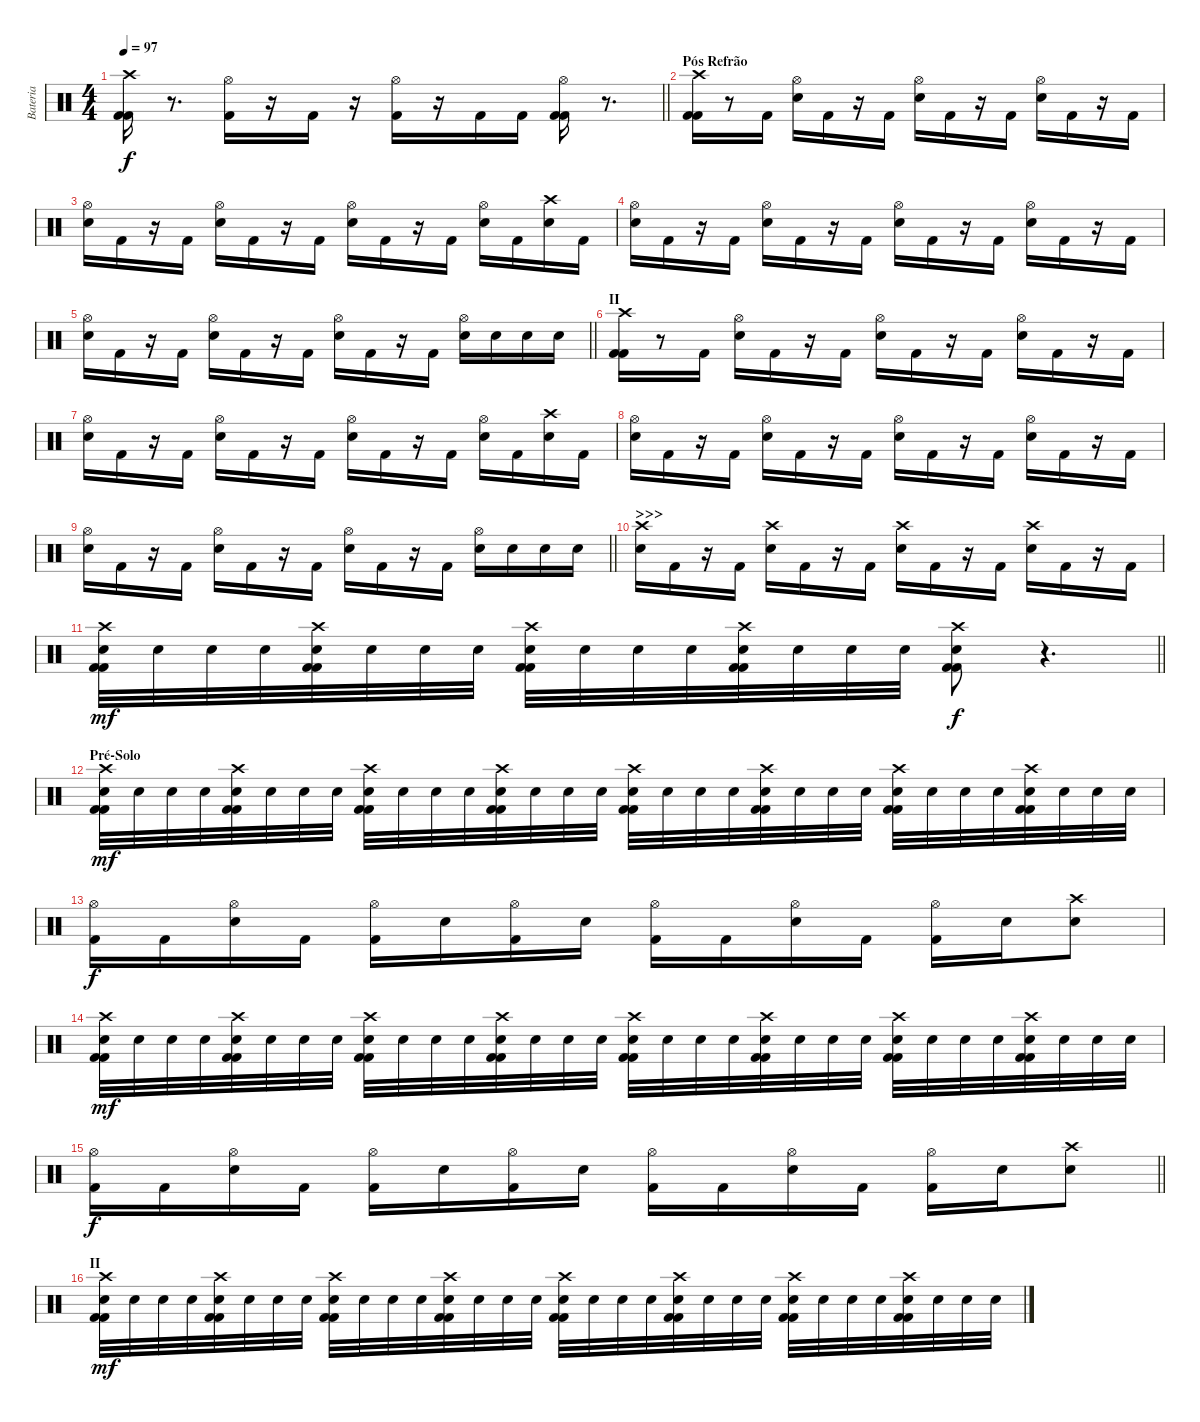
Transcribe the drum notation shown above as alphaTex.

\track ("Bateria" "Bateria") {instrument percussion}
\staff {score}
\articulation defaults
\ts (4 4)
\tempo 97
\clef neutral
\barLineRight lightlight
\ks c
("Crash high (hit)" "Kick (hit) 2" "Kick (hit) 2").16{dy f} r.8{d} ("Hi-Hat (open)" "Kick (hit) 2").16 r.16 "Kick (hit) 2".16 r.16 ("Hi-Hat (open)" "Kick (hit) 2").16 r.16 "Kick (hit) 2".16 "Kick (hit) 2".16 ("Hi-Hat (open)" "Kick (hit) 2" "Kick (hit) 2").16 r.8{d} |
\section ("" "Pós Refrão")
("Crash high (hit)" "Kick (hit) 2" "Kick (hit) 2").16 r.8 "Kick (hit) 2".16 ("Hi-Hat (open)" "Electric Snare (hit)").16 "Kick (hit) 2".16 r.16 "Kick (hit) 2".16 ("Hi-Hat (open)" "Electric Snare (hit)").16 "Kick (hit) 2".16 r.16 "Kick (hit) 2".16 ("Hi-Hat (open)" "Electric Snare (hit)").16 "Kick (hit) 2".16 r.16 "Kick (hit) 2".16 |
("Hi-Hat (open)" "Electric Snare (hit)").16 "Kick (hit) 2".16 r.16 "Kick (hit) 2".16 ("Hi-Hat (open)" "Electric Snare (hit)").16 "Kick (hit) 2".16 r.16 "Kick (hit) 2".16 ("Hi-Hat (open)" "Electric Snare (hit)").16 "Kick (hit) 2".16 r.16 "Kick (hit) 2".16 ("Hi-Hat (open)" "Electric Snare (hit)").16 "Kick (hit) 2".16 ("Crash high (hit)" "Electric Snare (hit)").16 "Kick (hit) 2".16 |
("Hi-Hat (open)" "Electric Snare (hit)").16 "Kick (hit) 2".16 r.16 "Kick (hit) 2".16 ("Hi-Hat (open)" "Electric Snare (hit)").16 "Kick (hit) 2".16 r.16 "Kick (hit) 2".16 ("Hi-Hat (open)" "Electric Snare (hit)").16 "Kick (hit) 2".16 r.16 "Kick (hit) 2".16 ("Hi-Hat (open)" "Electric Snare (hit)").16 "Kick (hit) 2".16 r.16 "Kick (hit) 2".16 |
\barLineRight lightlight
("Hi-Hat (open)" "Electric Snare (hit)").16 "Kick (hit) 2".16 r.16 "Kick (hit) 2".16 ("Hi-Hat (open)" "Electric Snare (hit)").16 "Kick (hit) 2".16 r.16 "Kick (hit) 2".16 ("Hi-Hat (open)" "Electric Snare (hit)").16 "Kick (hit) 2".16 r.16 "Kick (hit) 2".16 ("Hi-Hat (open)" "Electric Snare (hit)").16 "Electric Snare (hit)".16 "Electric Snare (hit)".16 "Electric Snare (hit)".16 |
\section ("" "II")
("Crash high (hit)" "Kick (hit) 2" "Kick (hit) 2").16 r.8 "Kick (hit) 2".16 ("Hi-Hat (open)" "Electric Snare (hit)").16 "Kick (hit) 2".16 r.16 "Kick (hit) 2".16 ("Hi-Hat (open)" "Electric Snare (hit)").16 "Kick (hit) 2".16 r.16 "Kick (hit) 2".16 ("Hi-Hat (open)" "Electric Snare (hit)").16 "Kick (hit) 2".16 r.16 "Kick (hit) 2".16 |
("Hi-Hat (open)" "Electric Snare (hit)").16 "Kick (hit) 2".16 r.16 "Kick (hit) 2".16 ("Hi-Hat (open)" "Electric Snare (hit)").16 "Kick (hit) 2".16 r.16 "Kick (hit) 2".16 ("Hi-Hat (open)" "Electric Snare (hit)").16 "Kick (hit) 2".16 r.16 "Kick (hit) 2".16 ("Hi-Hat (open)" "Electric Snare (hit)").16 "Kick (hit) 2".16 ("Crash high (hit)" "Electric Snare (hit)").16 "Kick (hit) 2".16 |
("Hi-Hat (open)" "Electric Snare (hit)").16 "Kick (hit) 2".16 r.16 "Kick (hit) 2".16 ("Hi-Hat (open)" "Electric Snare (hit)").16 "Kick (hit) 2".16 r.16 "Kick (hit) 2".16 ("Hi-Hat (open)" "Electric Snare (hit)").16 "Kick (hit) 2".16 r.16 "Kick (hit) 2".16 ("Hi-Hat (open)" "Electric Snare (hit)").16 "Kick (hit) 2".16 r.16 "Kick (hit) 2".16 |
\barLineRight lightlight
("Hi-Hat (open)" "Electric Snare (hit)").16 "Kick (hit) 2".16 r.16 "Kick (hit) 2".16 ("Hi-Hat (open)" "Electric Snare (hit)").16 "Kick (hit) 2".16 r.16 "Kick (hit) 2".16 ("Hi-Hat (open)" "Electric Snare (hit)").16 "Kick (hit) 2".16 r.16 "Kick (hit) 2".16 ("Hi-Hat (open)" "Electric Snare (hit)").16 "Electric Snare (hit)".16 "Electric Snare (hit)".16 "Electric Snare (hit)".16 |
\section ("" ">>>")
("Crash high (hit)" "Electric Snare (hit)").16 "Kick (hit) 2".16 r.16 "Kick (hit) 2".16 ("Crash high (hit)" "Electric Snare (hit)").16 "Kick (hit) 2".16 r.16 "Kick (hit) 2".16 ("Crash high (hit)" "Electric Snare (hit)").16 "Kick (hit) 2".16 r.16 "Kick (hit) 2".16 ("Crash high (hit)" "Electric Snare (hit)").16 "Kick (hit) 2".16 r.16 "Kick (hit) 2".16 |
\barLineRight lightlight
("Crash high (hit)" "Electric Snare (hit)" "Kick (hit) 2" "Kick (hit) 2").32{dy mf} "Electric Snare (hit)".32 "Electric Snare (hit)".32 "Electric Snare (hit)".32 ("Crash high (hit)" "Electric Snare (hit)" "Kick (hit) 2" "Kick (hit) 2").32 "Electric Snare (hit)".32 "Electric Snare (hit)".32 "Electric Snare (hit)".32 ("Crash high (hit)" "Electric Snare (hit)" "Kick (hit) 2" "Kick (hit) 2").32 "Electric Snare (hit)".32 "Electric Snare (hit)".32 "Electric Snare (hit)".32 ("Crash high (hit)" "Electric Snare (hit)" "Kick (hit) 2" "Kick (hit) 2").32 "Electric Snare (hit)".32 "Electric Snare (hit)".32 "Electric Snare (hit)".32 ("Crash high (hit)" "Electric Snare (hit)" "Kick (hit) 2" "Kick (hit) 2").8{dy f} r.4{d} |
\section ("" "Pré-Solo")
("Crash high (hit)" "Electric Snare (hit)" "Kick (hit) 2" "Kick (hit) 2").32{dy mf} "Electric Snare (hit)".32 "Electric Snare (hit)".32 "Electric Snare (hit)".32 ("Crash high (hit)" "Electric Snare (hit)" "Kick (hit) 2" "Kick (hit) 2").32 "Electric Snare (hit)".32 "Electric Snare (hit)".32 "Electric Snare (hit)".32 ("Crash high (hit)" "Electric Snare (hit)" "Kick (hit) 2" "Kick (hit) 2").32 "Electric Snare (hit)".32 "Electric Snare (hit)".32 "Electric Snare (hit)".32 ("Crash high (hit)" "Electric Snare (hit)" "Kick (hit) 2" "Kick (hit) 2").32 "Electric Snare (hit)".32 "Electric Snare (hit)".32 "Electric Snare (hit)".32 ("Crash high (hit)" "Electric Snare (hit)" "Kick (hit) 2" "Kick (hit) 2").32 "Electric Snare (hit)".32 "Electric Snare (hit)".32 "Electric Snare (hit)".32 ("Crash high (hit)" "Electric Snare (hit)" "Kick (hit) 2" "Kick (hit) 2").32 "Electric Snare (hit)".32 "Electric Snare (hit)".32 "Electric Snare (hit)".32 ("Crash high (hit)" "Electric Snare (hit)" "Kick (hit) 2" "Kick (hit) 2").32 "Electric Snare (hit)".32 "Electric Snare (hit)".32 "Electric Snare (hit)".32 ("Crash high (hit)" "Electric Snare (hit)" "Kick (hit) 2" "Kick (hit) 2").32 "Electric Snare (hit)".32 "Electric Snare (hit)".32 "Electric Snare (hit)".32 |
("Hi-Hat (open)" "Kick (hit) 2").16{dy f} "Kick (hit) 2".16 ("Hi-Hat (open)" "Electric Snare (hit)").16 "Kick (hit) 2".16 ("Hi-Hat (open)" "Kick (hit) 2").16 "Electric Snare (hit)".16 ("Hi-Hat (open)" "Kick (hit) 2").16 "Electric Snare (hit)".16 ("Hi-Hat (open)" "Kick (hit) 2").16 "Kick (hit) 2".16 ("Hi-Hat (open)" "Electric Snare (hit)").16 "Kick (hit) 2".16 ("Hi-Hat (open)" "Kick (hit) 2").16 "Electric Snare (hit)".16 ("Crash high (hit)" "Electric Snare (hit)").8 |
("Crash high (hit)" "Electric Snare (hit)" "Kick (hit) 2" "Kick (hit) 2").32{dy mf} "Electric Snare (hit)".32 "Electric Snare (hit)".32 "Electric Snare (hit)".32 ("Crash high (hit)" "Electric Snare (hit)" "Kick (hit) 2" "Kick (hit) 2").32 "Electric Snare (hit)".32 "Electric Snare (hit)".32 "Electric Snare (hit)".32 ("Crash high (hit)" "Electric Snare (hit)" "Kick (hit) 2" "Kick (hit) 2").32 "Electric Snare (hit)".32 "Electric Snare (hit)".32 "Electric Snare (hit)".32 ("Crash high (hit)" "Electric Snare (hit)" "Kick (hit) 2" "Kick (hit) 2").32 "Electric Snare (hit)".32 "Electric Snare (hit)".32 "Electric Snare (hit)".32 ("Crash high (hit)" "Electric Snare (hit)" "Kick (hit) 2" "Kick (hit) 2").32 "Electric Snare (hit)".32 "Electric Snare (hit)".32 "Electric Snare (hit)".32 ("Crash high (hit)" "Electric Snare (hit)" "Kick (hit) 2" "Kick (hit) 2").32 "Electric Snare (hit)".32 "Electric Snare (hit)".32 "Electric Snare (hit)".32 ("Crash high (hit)" "Electric Snare (hit)" "Kick (hit) 2" "Kick (hit) 2").32 "Electric Snare (hit)".32 "Electric Snare (hit)".32 "Electric Snare (hit)".32 ("Crash high (hit)" "Electric Snare (hit)" "Kick (hit) 2" "Kick (hit) 2").32 "Electric Snare (hit)".32 "Electric Snare (hit)".32 "Electric Snare (hit)".32 |
\barLineRight lightlight
("Hi-Hat (open)" "Kick (hit) 2").16{dy f} "Kick (hit) 2".16 ("Hi-Hat (open)" "Electric Snare (hit)").16 "Kick (hit) 2".16 ("Hi-Hat (open)" "Kick (hit) 2").16 "Electric Snare (hit)".16 ("Hi-Hat (open)" "Kick (hit) 2").16 "Electric Snare (hit)".16 ("Hi-Hat (open)" "Kick (hit) 2").16 "Kick (hit) 2".16 ("Hi-Hat (open)" "Electric Snare (hit)").16 "Kick (hit) 2".16 ("Hi-Hat (open)" "Kick (hit) 2").16 "Electric Snare (hit)".16 ("Crash high (hit)" "Electric Snare (hit)").8 |
\section ("" "II")
("Crash high (hit)" "Electric Snare (hit)" "Kick (hit) 2" "Kick (hit) 2").32{dy mf} "Electric Snare (hit)".32 "Electric Snare (hit)".32 "Electric Snare (hit)".32 ("Crash high (hit)" "Electric Snare (hit)" "Kick (hit) 2" "Kick (hit) 2").32 "Electric Snare (hit)".32 "Electric Snare (hit)".32 "Electric Snare (hit)".32 ("Crash high (hit)" "Electric Snare (hit)" "Kick (hit) 2" "Kick (hit) 2").32 "Electric Snare (hit)".32 "Electric Snare (hit)".32 "Electric Snare (hit)".32 ("Crash high (hit)" "Electric Snare (hit)" "Kick (hit) 2" "Kick (hit) 2").32 "Electric Snare (hit)".32 "Electric Snare (hit)".32 "Electric Snare (hit)".32 ("Crash high (hit)" "Electric Snare (hit)" "Kick (hit) 2" "Kick (hit) 2").32 "Electric Snare (hit)".32 "Electric Snare (hit)".32 "Electric Snare (hit)".32 ("Crash high (hit)" "Electric Snare (hit)" "Kick (hit) 2" "Kick (hit) 2").32 "Electric Snare (hit)".32 "Electric Snare (hit)".32 "Electric Snare (hit)".32 ("Crash high (hit)" "Electric Snare (hit)" "Kick (hit) 2" "Kick (hit) 2").32 "Electric Snare (hit)".32 "Electric Snare (hit)".32 "Electric Snare (hit)".32 ("Crash high (hit)" "Electric Snare (hit)" "Kick (hit) 2" "Kick (hit) 2").32 "Electric Snare (hit)".32 "Electric Snare (hit)".32 "Electric Snare (hit)".32
